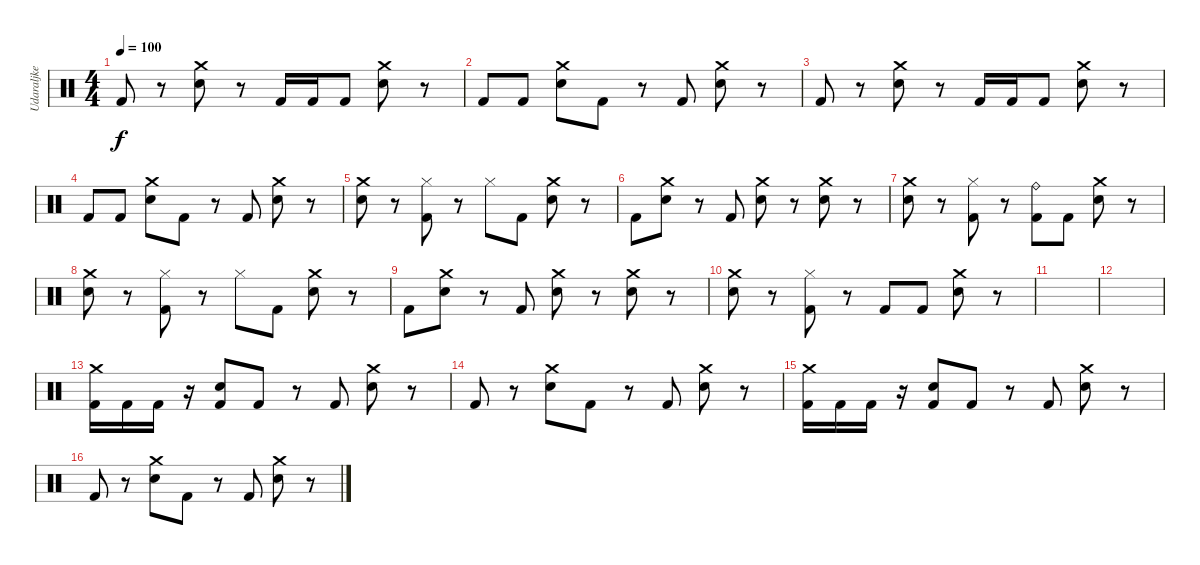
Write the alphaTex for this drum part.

\track ("Udaraljke" "Udaraljke") {instrument percussion}
\staff {score}
\articulation defaults
\ts (4 4)
\tempo 100
\clef neutral
\ks c "Kick (hit) 2".8{dy f}
r.8 ("Crash medium (hit)" "Snare (hit) 2").8 r.8 "Kick (hit) 2".16 "Kick (hit) 2".16 "Kick (hit) 2".8 ("Crash medium (hit)" "Snare (hit) 2").8 r.8 |
"Kick (hit) 2".8 "Kick (hit) 2".8 ("Crash medium (hit)" "Snare (hit) 2").8 "Kick (hit) 2".8 r.8 "Kick (hit) 2".8 ("Crash medium (hit)" "Snare (hit) 2").8 r.8 |
"Kick (hit) 2".8 r.8 ("Crash medium (hit)" "Snare (hit) 2").8 r.8 "Kick (hit) 2".16 "Kick (hit) 2".16 "Kick (hit) 2".8 ("Crash medium (hit)" "Snare (hit) 2").8 r.8 |
"Kick (hit) 2".8 "Kick (hit) 2".8 ("Crash medium (hit)" "Snare (hit) 2").8 "Kick (hit) 2".8 r.8 "Kick (hit) 2".8 ("Crash medium (hit)" "Snare (hit) 2").8 r.8 |
("Crash medium (hit)" "Snare (hit) 2").8 r.8 ("Hi-Hat (closed)" "Kick (hit) 2").8 r.8 "Hi-Hat (closed)".8 "Kick (hit) 2".8 ("Crash medium (hit)" "Snare (hit) 2").8 r.8 |
"Kick (hit) 2".8 ("Crash medium (hit)" "Snare (hit) 2").8 r.8 "Kick (hit) 2".8 ("Snare (hit) 2" "Crash medium (hit)").8 r.8 ("Crash medium (hit)" "Snare (hit) 2").8 r.8 |
("Crash medium (hit)" "Snare (hit) 2").8 r.8 ("Hi-Hat (closed)" "Kick (hit) 2").8 r.8 ("Ride (bell)" "Kick (hit) 2").8 "Kick (hit) 2".8 ("Crash medium (hit)" "Snare (hit) 2").8 r.8 |
("Crash medium (hit)" "Snare (hit) 2").8 r.8 ("Hi-Hat (closed)" "Kick (hit) 2").8 r.8 "Hi-Hat (closed)".8 "Kick (hit) 2".8 ("Crash medium (hit)" "Snare (hit) 2").8 r.8 |
"Kick (hit) 2".8 ("Crash medium (hit)" "Snare (hit) 2").8 r.8 "Kick (hit) 2".8 ("Snare (hit) 2" "Crash medium (hit)").8 r.8 ("Crash medium (hit)" "Snare (hit) 2").8 r.8 |
("Crash medium (hit)" "Snare (hit) 2").8 r.8 ("Hi-Hat (closed)" "Kick (hit) 2").8 r.8 "Kick (hit) 2".8 "Kick (hit) 2".8 ("Crash medium (hit)" "Snare (hit) 2").8 r.8 |
|
|
("Crash medium (hit)" "Kick (hit) 2").16 "Kick (hit) 2".16 "Kick (hit) 2".16 r.16 ("Snare (hit) 2" "Kick (hit) 2").8 "Kick (hit) 2".8 r.8 "Kick (hit) 2".8 ("Crash medium (hit)" "Snare (hit) 2").8 r.8 |
"Kick (hit) 2".8 r.8 ("Crash medium (hit)" "Snare (hit) 2").8 "Kick (hit) 2".8 r.8 "Kick (hit) 2".8 ("Crash medium (hit)" "Snare (hit) 2").8 r.8 |
("Crash medium (hit)" "Kick (hit) 2").16 "Kick (hit) 2".16 "Kick (hit) 2".16 r.16 ("Snare (hit) 2" "Kick (hit) 2").8 "Kick (hit) 2".8 r.8 "Kick (hit) 2".8 ("Crash medium (hit)" "Snare (hit) 2").8 r.8 |
"Kick (hit) 2".8 r.8 ("Crash medium (hit)" "Snare (hit) 2").8 "Kick (hit) 2".8 r.8 "Kick (hit) 2".8 ("Crash medium (hit)" "Snare (hit) 2").8 r.8
